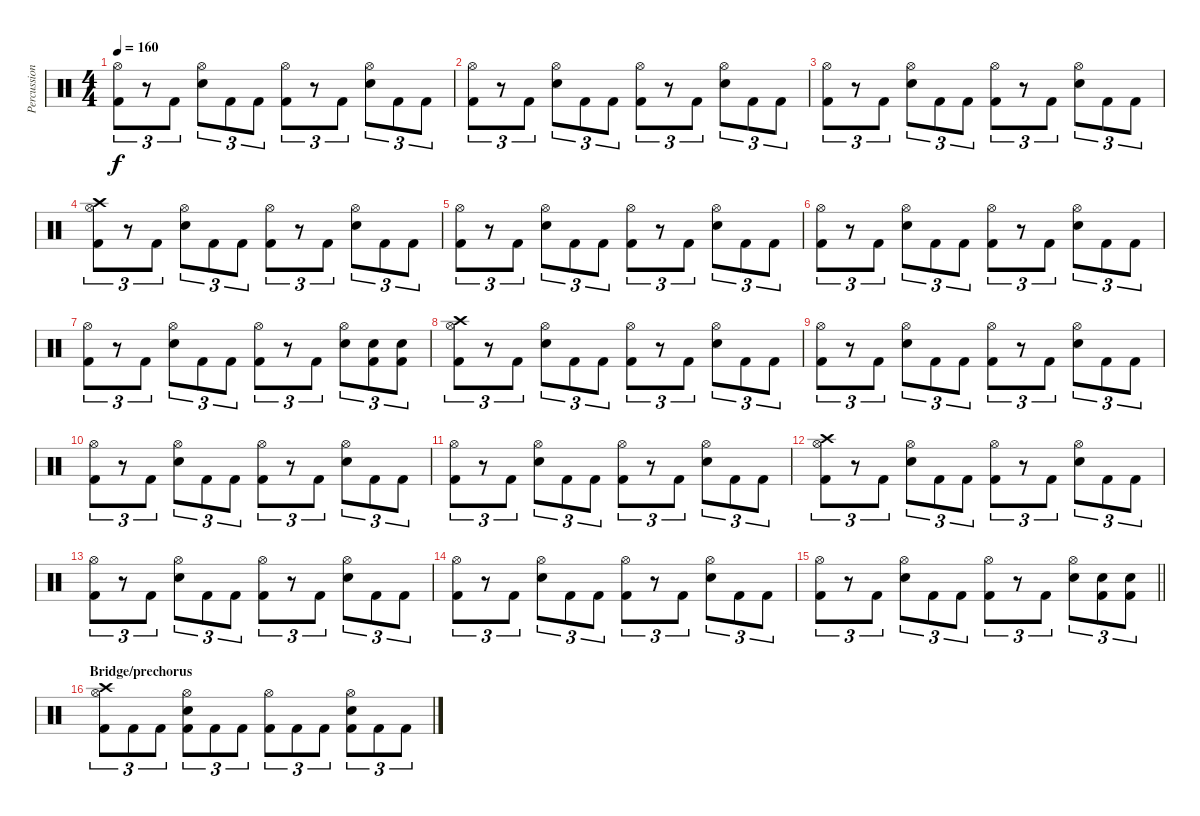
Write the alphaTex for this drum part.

\track ("Percussion" "Percussion") {instrument percussion}
\staff {score}
\articulation defaults
\ts (4 4)
\tempo 160
\clef neutral
\ks c
("Hi-Hat (open)" "Kick (hit) 2").8{tu (3 2) dy f} r.8{tu (3 2)} "Kick (hit) 2".8{tu (3 2)} ("Hi-Hat (open)" "Snare (hit) 2").8{tu (3 2)} "Kick (hit) 2".8{tu (3 2)} "Kick (hit) 2".8{tu (3 2)} ("Hi-Hat (open)" "Kick (hit) 2").8{tu (3 2)} r.8{tu (3 2)} "Kick (hit) 2".8{tu (3 2)} ("Hi-Hat (open)" "Snare (hit) 2").8{tu (3 2)} "Kick (hit) 2".8{tu (3 2)} "Kick (hit) 2".8{tu (3 2)} |
("Hi-Hat (open)" "Kick (hit) 2").8{tu (3 2)} r.8{tu (3 2)} "Kick (hit) 2".8{tu (3 2)} ("Hi-Hat (open)" "Snare (hit) 2").8{tu (3 2)} "Kick (hit) 2".8{tu (3 2)} "Kick (hit) 2".8{tu (3 2)} ("Hi-Hat (open)" "Kick (hit) 2").8{tu (3 2)} r.8{tu (3 2)} "Kick (hit) 2".8{tu (3 2)} ("Hi-Hat (open)" "Snare (hit) 2").8{tu (3 2)} "Kick (hit) 2".8{tu (3 2)} "Kick (hit) 2".8{tu (3 2)} |
("Hi-Hat (open)" "Kick (hit) 2").8{tu (3 2)} r.8{tu (3 2)} "Kick (hit) 2".8{tu (3 2)} ("Hi-Hat (open)" "Snare (hit) 2").8{tu (3 2)} "Kick (hit) 2".8{tu (3 2)} "Kick (hit) 2".8{tu (3 2)} ("Hi-Hat (open)" "Kick (hit) 2").8{tu (3 2)} r.8{tu (3 2)} "Kick (hit) 2".8{tu (3 2)} ("Hi-Hat (open)" "Snare (hit) 2").8{tu (3 2)} "Kick (hit) 2".8{tu (3 2)} "Kick (hit) 2".8{tu (3 2)} |
("Crash high (hit)" "Hi-Hat (open)" "Kick (hit) 2").8{tu (3 2)} r.8{tu (3 2)} "Kick (hit) 2".8{tu (3 2)} ("Hi-Hat (open)" "Snare (hit) 2").8{tu (3 2)} "Kick (hit) 2".8{tu (3 2)} "Kick (hit) 2".8{tu (3 2)} ("Hi-Hat (open)" "Kick (hit) 2").8{tu (3 2)} r.8{tu (3 2)} "Kick (hit) 2".8{tu (3 2)} ("Hi-Hat (open)" "Snare (hit) 2").8{tu (3 2)} "Kick (hit) 2".8{tu (3 2)} "Kick (hit) 2".8{tu (3 2)} |
("Hi-Hat (open)" "Kick (hit) 2").8{tu (3 2)} r.8{tu (3 2)} "Kick (hit) 2".8{tu (3 2)} ("Hi-Hat (open)" "Snare (hit) 2").8{tu (3 2)} "Kick (hit) 2".8{tu (3 2)} "Kick (hit) 2".8{tu (3 2)} ("Hi-Hat (open)" "Kick (hit) 2").8{tu (3 2)} r.8{tu (3 2)} "Kick (hit) 2".8{tu (3 2)} ("Hi-Hat (open)" "Snare (hit) 2").8{tu (3 2)} "Kick (hit) 2".8{tu (3 2)} "Kick (hit) 2".8{tu (3 2)} |
("Hi-Hat (open)" "Kick (hit) 2").8{tu (3 2)} r.8{tu (3 2)} "Kick (hit) 2".8{tu (3 2)} ("Hi-Hat (open)" "Snare (hit) 2").8{tu (3 2)} "Kick (hit) 2".8{tu (3 2)} "Kick (hit) 2".8{tu (3 2)} ("Hi-Hat (open)" "Kick (hit) 2").8{tu (3 2)} r.8{tu (3 2)} "Kick (hit) 2".8{tu (3 2)} ("Hi-Hat (open)" "Snare (hit) 2").8{tu (3 2)} "Kick (hit) 2".8{tu (3 2)} "Kick (hit) 2".8{tu (3 2)} |
("Hi-Hat (open)" "Kick (hit) 2").8{tu (3 2)} r.8{tu (3 2)} "Kick (hit) 2".8{tu (3 2)} ("Hi-Hat (open)" "Snare (hit) 2").8{tu (3 2)} "Kick (hit) 2".8{tu (3 2)} "Kick (hit) 2".8{tu (3 2)} ("Hi-Hat (open)" "Kick (hit) 2").8{tu (3 2)} r.8{tu (3 2)} "Kick (hit) 2".8{tu (3 2)} ("Hi-Hat (open)" "Snare (hit) 2").8{tu (3 2)} ("Snare (hit) 2" "Kick (hit) 2").8{tu (3 2)} ("Snare (hit) 2" "Kick (hit) 2").8{tu (3 2)} |
("Crash high (hit)" "Hi-Hat (open)" "Kick (hit) 2").8{tu (3 2)} r.8{tu (3 2)} "Kick (hit) 2".8{tu (3 2)} ("Hi-Hat (open)" "Snare (hit) 2").8{tu (3 2)} "Kick (hit) 2".8{tu (3 2)} "Kick (hit) 2".8{tu (3 2)} ("Hi-Hat (open)" "Kick (hit) 2").8{tu (3 2)} r.8{tu (3 2)} "Kick (hit) 2".8{tu (3 2)} ("Hi-Hat (open)" "Snare (hit) 2").8{tu (3 2)} "Kick (hit) 2".8{tu (3 2)} "Kick (hit) 2".8{tu (3 2)} |
("Hi-Hat (open)" "Kick (hit) 2").8{tu (3 2)} r.8{tu (3 2)} "Kick (hit) 2".8{tu (3 2)} ("Hi-Hat (open)" "Snare (hit) 2").8{tu (3 2)} "Kick (hit) 2".8{tu (3 2)} "Kick (hit) 2".8{tu (3 2)} ("Hi-Hat (open)" "Kick (hit) 2").8{tu (3 2)} r.8{tu (3 2)} "Kick (hit) 2".8{tu (3 2)} ("Hi-Hat (open)" "Snare (hit) 2").8{tu (3 2)} "Kick (hit) 2".8{tu (3 2)} "Kick (hit) 2".8{tu (3 2)} |
("Hi-Hat (open)" "Kick (hit) 2").8{tu (3 2)} r.8{tu (3 2)} "Kick (hit) 2".8{tu (3 2)} ("Hi-Hat (open)" "Snare (hit) 2").8{tu (3 2)} "Kick (hit) 2".8{tu (3 2)} "Kick (hit) 2".8{tu (3 2)} ("Hi-Hat (open)" "Kick (hit) 2").8{tu (3 2)} r.8{tu (3 2)} "Kick (hit) 2".8{tu (3 2)} ("Hi-Hat (open)" "Snare (hit) 2").8{tu (3 2)} "Kick (hit) 2".8{tu (3 2)} "Kick (hit) 2".8{tu (3 2)} |
("Hi-Hat (open)" "Kick (hit) 2").8{tu (3 2)} r.8{tu (3 2)} "Kick (hit) 2".8{tu (3 2)} ("Hi-Hat (open)" "Snare (hit) 2").8{tu (3 2)} "Kick (hit) 2".8{tu (3 2)} "Kick (hit) 2".8{tu (3 2)} ("Hi-Hat (open)" "Kick (hit) 2").8{tu (3 2)} r.8{tu (3 2)} "Kick (hit) 2".8{tu (3 2)} ("Hi-Hat (open)" "Snare (hit) 2").8{tu (3 2)} "Kick (hit) 2".8{tu (3 2)} "Kick (hit) 2".8{tu (3 2)} |
("Crash high (hit)" "Hi-Hat (open)" "Kick (hit) 2").8{tu (3 2)} r.8{tu (3 2)} "Kick (hit) 2".8{tu (3 2)} ("Hi-Hat (open)" "Snare (hit) 2").8{tu (3 2)} "Kick (hit) 2".8{tu (3 2)} "Kick (hit) 2".8{tu (3 2)} ("Hi-Hat (open)" "Kick (hit) 2").8{tu (3 2)} r.8{tu (3 2)} "Kick (hit) 2".8{tu (3 2)} ("Hi-Hat (open)" "Snare (hit) 2").8{tu (3 2)} "Kick (hit) 2".8{tu (3 2)} "Kick (hit) 2".8{tu (3 2)} |
("Hi-Hat (open)" "Kick (hit) 2").8{tu (3 2)} r.8{tu (3 2)} "Kick (hit) 2".8{tu (3 2)} ("Hi-Hat (open)" "Snare (hit) 2").8{tu (3 2)} "Kick (hit) 2".8{tu (3 2)} "Kick (hit) 2".8{tu (3 2)} ("Hi-Hat (open)" "Kick (hit) 2").8{tu (3 2)} r.8{tu (3 2)} "Kick (hit) 2".8{tu (3 2)} ("Hi-Hat (open)" "Snare (hit) 2").8{tu (3 2)} "Kick (hit) 2".8{tu (3 2)} "Kick (hit) 2".8{tu (3 2)} |
("Hi-Hat (open)" "Kick (hit) 2").8{tu (3 2)} r.8{tu (3 2)} "Kick (hit) 2".8{tu (3 2)} ("Hi-Hat (open)" "Snare (hit) 2").8{tu (3 2)} "Kick (hit) 2".8{tu (3 2)} "Kick (hit) 2".8{tu (3 2)} ("Hi-Hat (open)" "Kick (hit) 2").8{tu (3 2)} r.8{tu (3 2)} "Kick (hit) 2".8{tu (3 2)} ("Hi-Hat (open)" "Snare (hit) 2").8{tu (3 2)} "Kick (hit) 2".8{tu (3 2)} "Kick (hit) 2".8{tu (3 2)} |
\barLineRight lightlight
("Hi-Hat (open)" "Kick (hit) 2").8{tu (3 2)} r.8{tu (3 2)} "Kick (hit) 2".8{tu (3 2)} ("Hi-Hat (open)" "Snare (hit) 2").8{tu (3 2)} "Kick (hit) 2".8{tu (3 2)} "Kick (hit) 2".8{tu (3 2)} ("Hi-Hat (open)" "Kick (hit) 2").8{tu (3 2)} r.8{tu (3 2)} "Kick (hit) 2".8{tu (3 2)} ("Hi-Hat (open)" "Snare (hit) 2").8{tu (3 2)} ("Snare (hit) 2" "Kick (hit) 2").8{tu (3 2)} ("Snare (hit) 2" "Kick (hit) 2").8{tu (3 2)} |
\section ("" "Bridge/prechorus")
("Crash high (hit)" "Hi-Hat (open)" "Kick (hit) 2").8{tu (3 2)} "Kick (hit) 2".8{tu (3 2)} "Kick (hit) 2".8{tu (3 2)} ("Hi-Hat (open)" "Snare (hit) 2" "Kick (hit) 2").8{tu (3 2)} "Kick (hit) 2".8{tu (3 2)} "Kick (hit) 2".8{tu (3 2)} ("Hi-Hat (open)" "Kick (hit) 2").8{tu (3 2)} "Kick (hit) 2".8{tu (3 2)} "Kick (hit) 2".8{tu (3 2)} ("Hi-Hat (open)" "Snare (hit) 2" "Kick (hit) 2").8{tu (3 2)} "Kick (hit) 2".8{tu (3 2)} "Kick (hit) 2".8{tu (3 2)}
